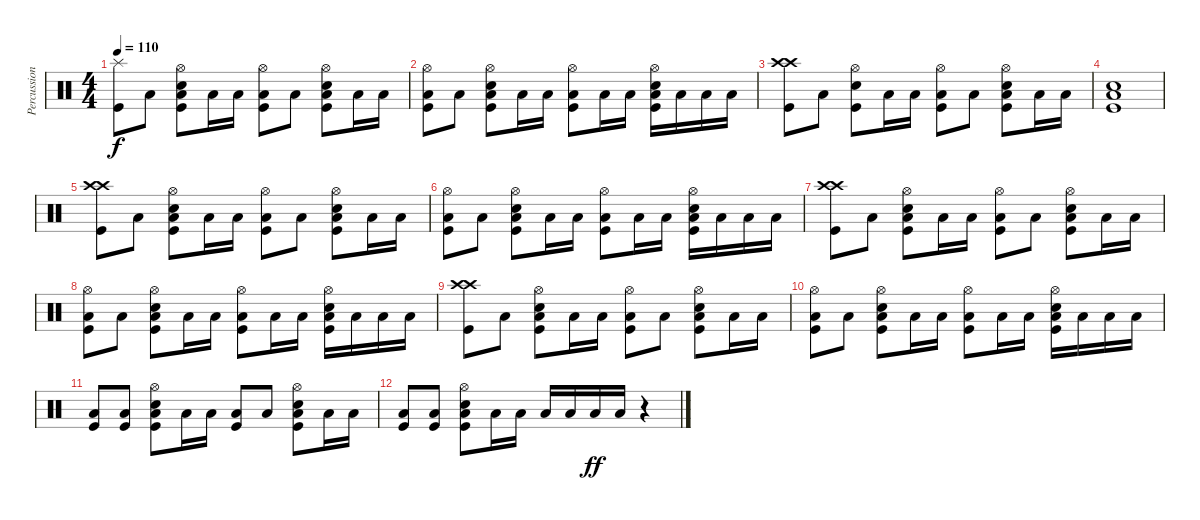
\track ("Percussion" "Percussion") {instrument percussion}
\staff {score}
\articulation defaults
\ts (4 4)
\tempo 110
\clef neutral
\ks c
("Splash (hit)" "Kick (hit)").8{dy f} "Low Floor Tom (hit)".8 ("Kick (hit)" "Low Floor Tom (hit)" "Snare (hit) 2" "Hi-Hat (open)").8 "Low Floor Tom (hit)".16 "Low Floor Tom (hit)".16 ("Kick (hit)" "Low Floor Tom (hit)" "Hi-Hat (open)").8 "Low Floor Tom (hit)".8 ("Low Floor Tom (hit)" "Kick (hit)" "Snare (hit) 2" "Hi-Hat (open)").8 "Low Floor Tom (hit)".16 "Low Floor Tom (hit)".16 |
("Kick (hit)" "Low Floor Tom (hit)" "Hi-Hat (open)").8 "Low Floor Tom (hit)".8 ("Low Floor Tom (hit)" "Kick (hit)" "Snare (hit) 2" "Hi-Hat (open)").8 "Low Floor Tom (hit)".16 "Low Floor Tom (hit)".16 ("Kick (hit)" "Low Floor Tom (hit)" "Hi-Hat (open)").8 "Low Floor Tom (hit)".16 "Low Floor Tom (hit)".16 ("Low Floor Tom (hit)" "Kick (hit)" "Snare (hit) 2" "Hi-Hat (open)").16 "Low Floor Tom (hit)".16 "Low Floor Tom (hit)".16 "Low Floor Tom (hit)".16 |
("Crash high (hit)" "Kick (hit)" "Crash high (hit)").8 "Low Floor Tom (hit)".8 ("Kick (hit)" "Snare (hit) 2" "Hi-Hat (open)").8 "Low Floor Tom (hit)".16 "Low Floor Tom (hit)".16 ("Kick (hit)" "Low Floor Tom (hit)" "Hi-Hat (open)").8 "Low Floor Tom (hit)".8 ("Low Floor Tom (hit)" "Kick (hit)" "Snare (hit) 2" "Hi-Hat (open)").8 "Low Floor Tom (hit)".16 "Low Floor Tom (hit)".16 |
("Kick (hit)" "Low Floor Tom (hit)" "Snare (hit) 2").1 |
("Crash high (hit)" "Kick (hit)" "Crash high (hit)").8 "Low Floor Tom (hit)".8 ("Kick (hit)" "Low Floor Tom (hit)" "Snare (hit) 2" "Hi-Hat (open)").8 "Low Floor Tom (hit)".16 "Low Floor Tom (hit)".16 ("Kick (hit)" "Low Floor Tom (hit)" "Hi-Hat (open)").8 "Low Floor Tom (hit)".8 ("Low Floor Tom (hit)" "Kick (hit)" "Snare (hit) 2" "Hi-Hat (open)").8 "Low Floor Tom (hit)".16 "Low Floor Tom (hit)".16 |
("Kick (hit)" "Low Floor Tom (hit)" "Hi-Hat (open)").8 "Low Floor Tom (hit)".8 ("Low Floor Tom (hit)" "Kick (hit)" "Snare (hit) 2" "Hi-Hat (open)").8 "Low Floor Tom (hit)".16 "Low Floor Tom (hit)".16 ("Kick (hit)" "Low Floor Tom (hit)" "Hi-Hat (open)").8 "Low Floor Tom (hit)".16 "Low Floor Tom (hit)".16 ("Low Floor Tom (hit)" "Kick (hit)" "Snare (hit) 2" "Hi-Hat (open)").16 "Low Floor Tom (hit)".16 "Low Floor Tom (hit)".16 "Low Floor Tom (hit)".16 |
("Crash high (hit)" "Kick (hit)" "Crash high (hit)").8 "Low Floor Tom (hit)".8 ("Kick (hit)" "Low Floor Tom (hit)" "Snare (hit) 2" "Hi-Hat (open)").8 "Low Floor Tom (hit)".16 "Low Floor Tom (hit)".16 ("Kick (hit)" "Low Floor Tom (hit)" "Hi-Hat (open)").8 "Low Floor Tom (hit)".8 ("Low Floor Tom (hit)" "Kick (hit)" "Snare (hit) 2" "Hi-Hat (open)").8 "Low Floor Tom (hit)".16 "Low Floor Tom (hit)".16 |
("Kick (hit)" "Low Floor Tom (hit)" "Hi-Hat (open)").8 "Low Floor Tom (hit)".8 ("Low Floor Tom (hit)" "Kick (hit)" "Snare (hit) 2" "Hi-Hat (open)").8 "Low Floor Tom (hit)".16 "Low Floor Tom (hit)".16 ("Kick (hit)" "Low Floor Tom (hit)" "Hi-Hat (open)").8 "Low Floor Tom (hit)".16 "Low Floor Tom (hit)".16 ("Low Floor Tom (hit)" "Kick (hit)" "Snare (hit) 2" "Hi-Hat (open)").16 "Low Floor Tom (hit)".16 "Low Floor Tom (hit)".16 "Low Floor Tom (hit)".16 |
("Crash high (hit)" "Kick (hit)" "Crash high (hit)").8 "Low Floor Tom (hit)".8 ("Kick (hit)" "Low Floor Tom (hit)" "Snare (hit) 2" "Hi-Hat (open)").8 "Low Floor Tom (hit)".16 "Low Floor Tom (hit)".16 ("Kick (hit)" "Low Floor Tom (hit)" "Hi-Hat (open)").8 "Low Floor Tom (hit)".8 ("Low Floor Tom (hit)" "Kick (hit)" "Snare (hit) 2" "Hi-Hat (open)").8 "Low Floor Tom (hit)".16 "Low Floor Tom (hit)".16 |
("Kick (hit)" "Low Floor Tom (hit)" "Hi-Hat (open)").8 "Low Floor Tom (hit)".8 ("Low Floor Tom (hit)" "Kick (hit)" "Snare (hit) 2" "Hi-Hat (open)").8 "Low Floor Tom (hit)".16 "Low Floor Tom (hit)".16 ("Kick (hit)" "Low Floor Tom (hit)" "Hi-Hat (open)").8 "Low Floor Tom (hit)".16 "Low Floor Tom (hit)".16 ("Low Floor Tom (hit)" "Kick (hit)" "Snare (hit) 2" "Hi-Hat (open)").16 "Low Floor Tom (hit)".16 "Low Floor Tom (hit)".16 "Low Floor Tom (hit)".16 |
("Low Floor Tom (hit)" "Kick (hit)").8 ("Low Floor Tom (hit)" "Kick (hit)").8 ("Kick (hit)" "Low Floor Tom (hit)" "Snare (hit) 2" "Hi-Hat (open)").8 "Low Floor Tom (hit)".16 "Low Floor Tom (hit)".16 ("Kick (hit)" "Low Floor Tom (hit)").8 "Low Floor Tom (hit)".8 ("Low Floor Tom (hit)" "Kick (hit)" "Snare (hit) 2" "Hi-Hat (open)").8 "Low Floor Tom (hit)".16 "Low Floor Tom (hit)".16 |
("Low Floor Tom (hit)" "Kick (hit)").8 ("Low Floor Tom (hit)" "Kick (hit)").8 ("Kick (hit)" "Low Floor Tom (hit)" "Snare (hit) 2" "Hi-Hat (open)").8 "Low Floor Tom (hit)".16 "Low Floor Tom (hit)".16 "Low Floor Tom (hit)".16 "Low Floor Tom (hit)".16 "Low Floor Tom (hit)".16{dy ff} "Low Floor Tom (hit)".16 r.4
